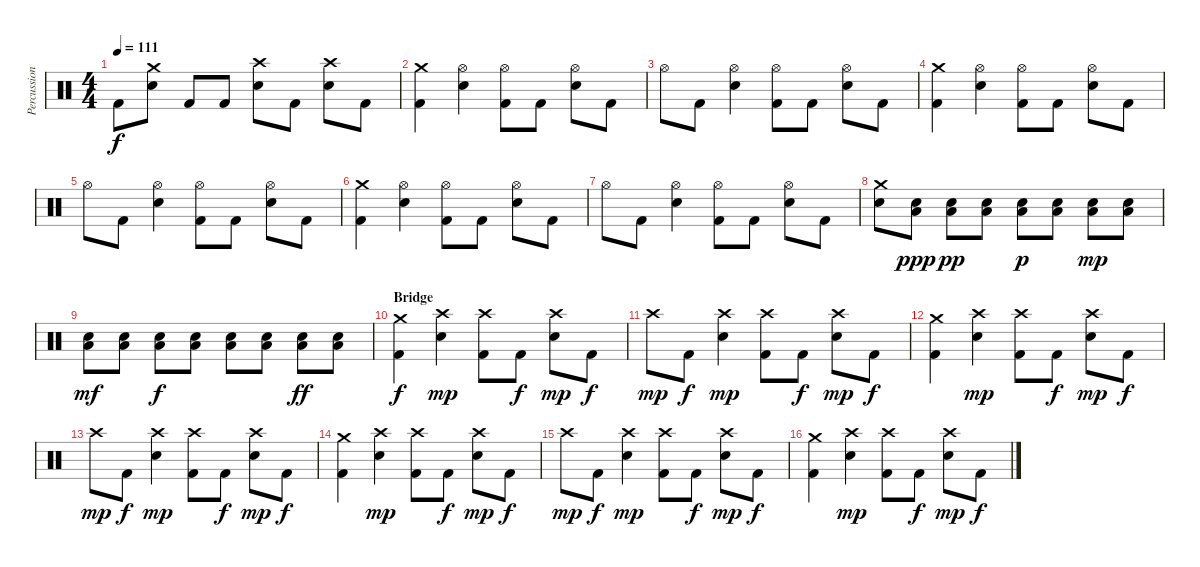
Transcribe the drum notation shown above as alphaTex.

\track ("Percussion" "Percussion") {instrument percussion}
\staff {score}
\articulation defaults
\ts (4 4)
\tempo 111
\clef neutral
\ks c "Kick (hit) 2".8{dy f}
("Crash medium (hit)" "Electric Snare (hit)").8 "Kick (hit) 2".8 "Kick (hit) 2".8 ("Crash high (hit)" "Electric Snare (hit)").8 "Kick (hit) 2".8 ("Crash high (hit)" "Electric Snare (hit)").8 "Kick (hit) 2".8 |
("Crash medium (hit)" "Kick (hit) 2").4 ("Hi-Hat (open)" "Electric Snare (hit)").4 ("Hi-Hat (open)" "Kick (hit) 2").8 "Kick (hit) 2".8 ("Hi-Hat (open)" "Electric Snare (hit)").8 "Kick (hit) 2".8 |
"Hi-Hat (open)".8 "Kick (hit) 2".8 ("Hi-Hat (open)" "Electric Snare (hit)").4 ("Hi-Hat (open)" "Kick (hit) 2").8 "Kick (hit) 2".8 ("Hi-Hat (open)" "Electric Snare (hit)").8 "Kick (hit) 2".8 |
("Crash medium (hit)" "Kick (hit) 2").4 ("Hi-Hat (open)" "Electric Snare (hit)").4 ("Hi-Hat (open)" "Kick (hit) 2").8 "Kick (hit) 2".8 ("Hi-Hat (open)" "Electric Snare (hit)").8 "Kick (hit) 2".8 |
"Hi-Hat (open)".8 "Kick (hit) 2".8 ("Hi-Hat (open)" "Electric Snare (hit)").4 ("Hi-Hat (open)" "Kick (hit) 2").8 "Kick (hit) 2".8 ("Hi-Hat (open)" "Electric Snare (hit)").8 "Kick (hit) 2".8 |
("Crash medium (hit)" "Kick (hit) 2").4 ("Hi-Hat (open)" "Electric Snare (hit)").4 ("Hi-Hat (open)" "Kick (hit) 2").8 "Kick (hit) 2".8 ("Hi-Hat (open)" "Electric Snare (hit)").8 "Kick (hit) 2".8 |
"Hi-Hat (open)".8 "Kick (hit) 2".8 ("Hi-Hat (open)" "Electric Snare (hit)").4 ("Hi-Hat (open)" "Kick (hit) 2").8 "Kick (hit) 2".8 ("Hi-Hat (open)" "Electric Snare (hit)").8 "Kick (hit) 2".8 |
("Crash medium (hit)" "Electric Snare (hit)").8 ("Low Floor Tom (hit)" "Electric Snare (hit)").8{dy ppp} ("Low Floor Tom (hit)" "Electric Snare (hit)").8{dy pp} ("Low Floor Tom (hit)" "Electric Snare (hit)").8 ("Low Floor Tom (hit)" "Electric Snare (hit)").8{dy p} ("Low Floor Tom (hit)" "Electric Snare (hit)").8 ("Low Floor Tom (hit)" "Electric Snare (hit)").8{dy mp} ("Low Floor Tom (hit)" "Electric Snare (hit)").8 |
("Low Floor Tom (hit)" "Electric Snare (hit)").8{dy mf} ("Low Floor Tom (hit)" "Electric Snare (hit)").8 ("Low Floor Tom (hit)" "Electric Snare (hit)").8{dy f} ("Low Floor Tom (hit)" "Electric Snare (hit)").8 ("Low Floor Tom (hit)" "Electric Snare (hit)").8 ("Low Floor Tom (hit)" "Electric Snare (hit)").8 ("Low Floor Tom (hit)" "Electric Snare (hit)").8{dy ff} ("Low Floor Tom (hit)" "Electric Snare (hit)").8 |
\section ("" "Bridge")
("Crash medium (hit)" "Kick (hit) 2").4{dy f} ("Crash high (hit)" "Electric Snare (hit)").4{dy mp} ("Crash high (hit)" "Kick (hit) 2").8 "Kick (hit) 2".8{dy f} ("Crash high (hit)" "Electric Snare (hit)").8{dy mp} "Kick (hit) 2".8{dy f} |
"Crash high (hit)".8{dy mp} "Kick (hit) 2".8{dy f} ("Crash high (hit)" "Electric Snare (hit)").4{dy mp} ("Crash high (hit)" "Kick (hit) 2").8 "Kick (hit) 2".8{dy f} ("Crash high (hit)" "Electric Snare (hit)").8{dy mp} "Kick (hit) 2".8{dy f} |
("Crash medium (hit)" "Kick (hit) 2").4 ("Crash high (hit)" "Electric Snare (hit)").4{dy mp} ("Crash high (hit)" "Kick (hit) 2").8 "Kick (hit) 2".8{dy f} ("Crash high (hit)" "Electric Snare (hit)").8{dy mp} "Kick (hit) 2".8{dy f} |
"Crash high (hit)".8{dy mp} "Kick (hit) 2".8{dy f} ("Crash high (hit)" "Electric Snare (hit)").4{dy mp} ("Crash high (hit)" "Kick (hit) 2").8 "Kick (hit) 2".8{dy f} ("Crash high (hit)" "Electric Snare (hit)").8{dy mp} "Kick (hit) 2".8{dy f} |
("Crash medium (hit)" "Kick (hit) 2").4 ("Crash high (hit)" "Electric Snare (hit)").4{dy mp} ("Crash high (hit)" "Kick (hit) 2").8 "Kick (hit) 2".8{dy f} ("Crash high (hit)" "Electric Snare (hit)").8{dy mp} "Kick (hit) 2".8{dy f} |
"Crash high (hit)".8{dy mp} "Kick (hit) 2".8{dy f} ("Crash high (hit)" "Electric Snare (hit)").4{dy mp} ("Crash high (hit)" "Kick (hit) 2").8 "Kick (hit) 2".8{dy f} ("Crash high (hit)" "Electric Snare (hit)").8{dy mp} "Kick (hit) 2".8{dy f} |
("Crash medium (hit)" "Kick (hit) 2").4 ("Crash high (hit)" "Electric Snare (hit)").4{dy mp} ("Crash high (hit)" "Kick (hit) 2").8 "Kick (hit) 2".8{dy f} ("Crash high (hit)" "Electric Snare (hit)").8{dy mp} "Kick (hit) 2".8{dy f}
